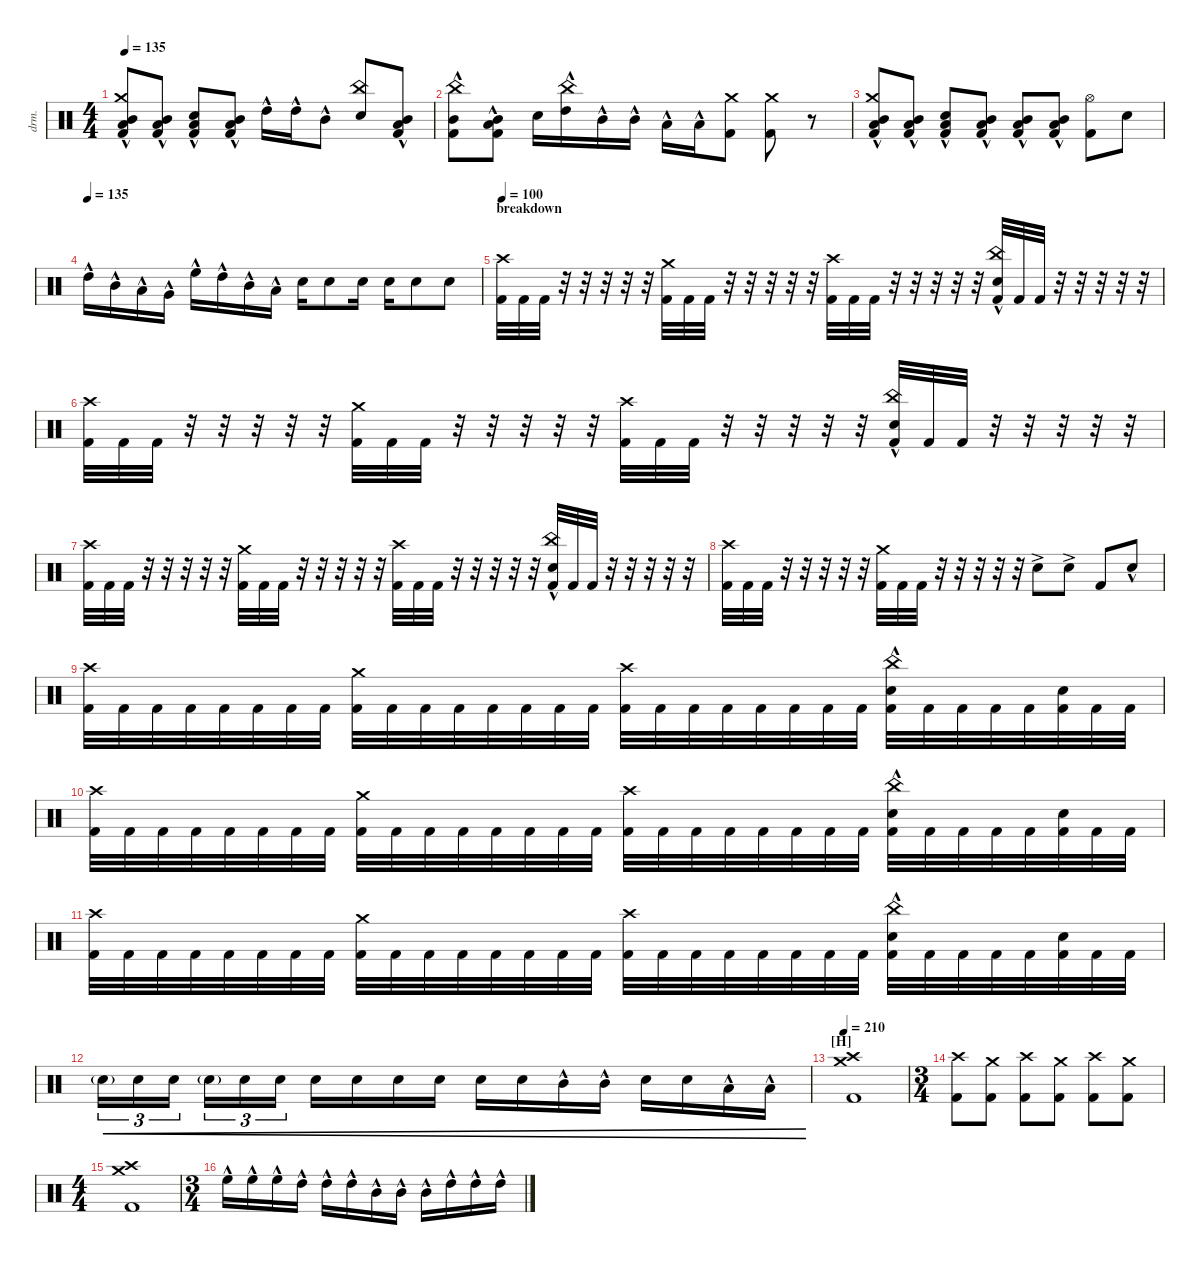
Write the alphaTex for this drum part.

\defaultSystemsLayout 4
\hideDynamics
\bracketExtendMode nobrackets
\otherSystemsTrackNameOrientation horizontal
\track ("Drumkit" "drm.") {instrument percussion}
\staff {score}
\articulation defaults
\ts (4 4)
\tempo 135
\clef neutral
\ks c
("Crash medium (hit)" "Kick (hit) 2" "Low Tom (hit)"{hac} "Mid Tom (hit)"{hac}).8{dy mf beam Up} ("Kick (hit) 2" "Low Tom (hit)"{hac} "Mid Tom (hit)"{hac}).8{beam Up} ("Kick (hit) 2" "Low Tom (hit)"{hac} "Snare (hit) 2").8{beam Up} ("Kick (hit) 2" "Low Tom (hit)"{hac} "Mid Tom (hit)"{hac}).8{beam Up} "High Tom (hit)"{hac}.16{beam Down} "High Tom (hit)"{hac}.16{beam Down} "Mid Tom (hit)"{hac}.8{beam Down} ("Snare (hit) 2" "China (hit)").8{beam Up} ("Kick (hit) 2" "Low Tom (hit)"{hac} "Mid Tom (hit)"{hac}).8{beam Up} |
("Kick (hit) 2" "Mid Tom (hit)"{hac} "China (hit)").8{beam Down} ("Kick (hit) 2" "Low Tom (hit)"{hac} "Mid Tom (hit)"{hac}).8{beam Down} "Snare (hit) 2".16{beam Down} ("High Tom (hit)"{hac} "China (hit)").16{beam Down} "Mid Tom (hit)"{hac}.16{beam Down} "Mid Tom (hit)"{hac}.16{beam Down} "Low Tom (hit)"{hac}.16{beam Down} "Low Tom (hit)"{hac}.16{beam Down} ("Kick (hit) 2" "Crash medium (hit)").8{beam Down} ("Kick (hit) 2" "Crash medium (hit)").8{beam Down} r.8{beam Down} |
("Crash medium (hit)" "Kick (hit) 2" "Low Tom (hit)"{hac} "Mid Tom (hit)"{hac}).8{beam Up} ("Kick (hit) 2" "Low Tom (hit)"{hac} "Mid Tom (hit)"{hac}).8{beam Up} ("Kick (hit) 2" "Low Tom (hit)"{hac} "Snare (hit) 2").8{beam Up} ("Kick (hit) 2" "Low Tom (hit)"{hac} "Mid Tom (hit)"{hac}).8{beam Up} ("Kick (hit) 2" "Low Tom (hit)"{hac} "Mid Tom (hit)"{hac}).8{beam Up} ("Kick (hit) 2" "Low Tom (hit)"{hac} "Mid Tom (hit)"{hac}).8{beam Up} ("Kick (hit) 2" "Hi-Hat (open)").8{beam Down} "Snare (hit) 2".8{beam Down} |
\tempo (135)
"High Tom (hit)"{hac}.16{beam Down} "Mid Tom (hit)"{hac}.16{beam Down} "Low Tom (hit)"{hac}.16{beam Down} "Very Low Tom (hit)"{hac}.16{beam Down} "High Floor Tom (hit)"{hac}.16{beam Down} "High Tom (hit)"{hac}.16{beam Down} "Mid Tom (hit)"{hac}.16{beam Down} "Low Tom (hit)"{hac}.16{beam Down} "Snare (hit) 2".16{beam Down} "Snare (hit) 2".8{beam Down} "Snare (hit) 2".16{beam Down} "Snare (hit) 2".16{beam Down} "Snare (hit) 2".8{beam Down} "Snare (hit) 2".8{beam Down} |
\section ("" "breakdown")
\tempo 100
("Kick (hit) 2" "Crash high (hit)").32{beam Down} "Kick (hit) 2".32{beam Down} "Kick (hit) 2".32{beam Down} r.32{beam Down} r.32{beam Down} r.32{beam Down} r.32{beam Down} r.32{beam Down} ("Kick (hit) 2" "Crash medium (hit)").32{beam Down} "Kick (hit) 2".32{beam Down} "Kick (hit) 2".32{beam Down} r.32{beam Down} r.32{beam Down} r.32{beam Down} r.32{beam Down} r.32{beam Down} ("Kick (hit) 2" "Crash high (hit)").32{beam Down} "Kick (hit) 2".32{beam Down} "Kick (hit) 2".32{beam Down} r.32{beam Down} r.32{beam Down} r.32{beam Down} r.32{beam Down} r.32{beam Down} ("Snare (hit) 2"{hac} "China (hit)" "Kick (hit) 2").32{beam Up} "Kick (hit) 2".32{beam Up} "Kick (hit) 2".32{beam Up} r.32{beam Up} r.32{beam Up} r.32{beam Up} r.32{beam Up} r.32{beam Up} |
("Kick (hit) 2" "Crash high (hit)").32{beam Down} "Kick (hit) 2".32{beam Down} "Kick (hit) 2".32{beam Down} r.32{beam Down} r.32{beam Down} r.32{beam Down} r.32{beam Down} r.32{beam Down} ("Kick (hit) 2" "Crash medium (hit)").32{beam Down} "Kick (hit) 2".32{beam Down} "Kick (hit) 2".32{beam Down} r.32{beam Down} r.32{beam Down} r.32{beam Down} r.32{beam Down} r.32{beam Down} ("Kick (hit) 2" "Crash high (hit)").32{beam Down} "Kick (hit) 2".32{beam Down} "Kick (hit) 2".32{beam Down} r.32{beam Down} r.32{beam Down} r.32{beam Down} r.32{beam Down} r.32{beam Down} ("Snare (hit) 2"{hac} "China (hit)" "Kick (hit) 2").32{beam Up} "Kick (hit) 2".32{beam Up} "Kick (hit) 2".32{beam Up} r.32{beam Up} r.32{beam Up} r.32{beam Up} r.32{beam Up} r.32{beam Up} |
("Kick (hit) 2" "Crash high (hit)").32{beam Down} "Kick (hit) 2".32{beam Down} "Kick (hit) 2".32{beam Down} r.32{beam Down} r.32{beam Down} r.32{beam Down} r.32{beam Down} r.32{beam Down} ("Kick (hit) 2" "Crash medium (hit)").32{beam Down} "Kick (hit) 2".32{beam Down} "Kick (hit) 2".32{beam Down} r.32{beam Down} r.32{beam Down} r.32{beam Down} r.32{beam Down} r.32{beam Down} ("Kick (hit) 2" "Crash high (hit)").32{beam Down} "Kick (hit) 2".32{beam Down} "Kick (hit) 2".32{beam Down} r.32{beam Down} r.32{beam Down} r.32{beam Down} r.32{beam Down} r.32{beam Down} ("Snare (hit) 2"{hac} "China (hit)" "Kick (hit) 2").32{beam Up} "Kick (hit) 2".32{beam Up} "Kick (hit) 2".32{beam Up} r.32{beam Up} r.32{beam Up} r.32{beam Up} r.32{beam Up} r.32{beam Up} |
("Kick (hit) 2" "Crash high (hit)").32{beam Down} "Kick (hit) 2".32{beam Down} "Kick (hit) 2".32{beam Down} r.32{beam Down} r.32{beam Down} r.32{beam Down} r.32{beam Down} r.32{beam Down} ("Kick (hit) 2" "Crash medium (hit)").32{beam Down} "Kick (hit) 2".32{beam Down} "Kick (hit) 2".32{beam Down} r.32{beam Down} r.32{beam Down} r.32{beam Down} r.32{beam Down} r.32{beam Down} "Snare (hit) 2"{ac}.8{beam Down} "Snare (hit) 2"{ac}.8{beam Down} "Kick (hit) 2".8{beam Up} "Snare (hit) 2"{hac}.8{beam Up} |
("Kick (hit) 2" "Crash high (hit)").32{beam Down} "Kick (hit) 2".32{beam Down} "Kick (hit) 2".32{beam Down} "Kick (hit) 2".32{beam Down} "Kick (hit) 2".32{beam Down} "Kick (hit) 2".32{beam Down} "Kick (hit) 2".32{beam Down} "Kick (hit) 2".32{beam Down} ("Kick (hit) 2" "Crash medium (hit)").32{beam Down} "Kick (hit) 2".32{beam Down} "Kick (hit) 2".32{beam Down} "Kick (hit) 2".32{beam Down} "Kick (hit) 2".32{beam Down} "Kick (hit) 2".32{beam Down} "Kick (hit) 2".32{beam Down} "Kick (hit) 2".32{beam Down} ("Kick (hit) 2" "Crash high (hit)").32{beam Down} "Kick (hit) 2".32{beam Down} "Kick (hit) 2".32{beam Down} "Kick (hit) 2".32{beam Down} "Kick (hit) 2".32{beam Down} "Kick (hit) 2".32{beam Down} "Kick (hit) 2".32{beam Down} "Kick (hit) 2".32{beam Down} ("Kick (hit) 2" "Snare (hit) 2"{hac} "China (hit)").32{beam Down} "Kick (hit) 2".32{beam Down} "Kick (hit) 2".32{beam Down} "Kick (hit) 2".32{beam Down} "Kick (hit) 2".32{beam Down} ("Snare (hit) 2" "Kick (hit) 2").32{beam Down} "Kick (hit) 2".32{beam Down} "Kick (hit) 2".32{beam Down} |
("Kick (hit) 2" "Crash high (hit)").32{beam Down} "Kick (hit) 2".32{beam Down} "Kick (hit) 2".32{beam Down} "Kick (hit) 2".32{beam Down} "Kick (hit) 2".32{beam Down} "Kick (hit) 2".32{beam Down} "Kick (hit) 2".32{beam Down} "Kick (hit) 2".32{beam Down} ("Kick (hit) 2" "Crash medium (hit)").32{beam Down} "Kick (hit) 2".32{beam Down} "Kick (hit) 2".32{beam Down} "Kick (hit) 2".32{beam Down} "Kick (hit) 2".32{beam Down} "Kick (hit) 2".32{beam Down} "Kick (hit) 2".32{beam Down} "Kick (hit) 2".32{beam Down} ("Kick (hit) 2" "Crash high (hit)").32{beam Down} "Kick (hit) 2".32{beam Down} "Kick (hit) 2".32{beam Down} "Kick (hit) 2".32{beam Down} "Kick (hit) 2".32{beam Down} "Kick (hit) 2".32{beam Down} "Kick (hit) 2".32{beam Down} "Kick (hit) 2".32{beam Down} ("Kick (hit) 2" "Snare (hit) 2"{hac} "China (hit)").32{beam Down} "Kick (hit) 2".32{beam Down} "Kick (hit) 2".32{beam Down} "Kick (hit) 2".32{beam Down} "Kick (hit) 2".32{beam Down} ("Snare (hit) 2" "Kick (hit) 2").32{beam Down} "Kick (hit) 2".32{beam Down} "Kick (hit) 2".32{beam Down} |
("Kick (hit) 2" "Crash high (hit)").32{beam Down} "Kick (hit) 2".32{beam Down} "Kick (hit) 2".32{beam Down} "Kick (hit) 2".32{beam Down} "Kick (hit) 2".32{beam Down} "Kick (hit) 2".32{beam Down} "Kick (hit) 2".32{beam Down} "Kick (hit) 2".32{beam Down} ("Kick (hit) 2" "Crash medium (hit)").32{beam Down} "Kick (hit) 2".32{beam Down} "Kick (hit) 2".32{beam Down} "Kick (hit) 2".32{beam Down} "Kick (hit) 2".32{beam Down} "Kick (hit) 2".32{beam Down} "Kick (hit) 2".32{beam Down} "Kick (hit) 2".32{beam Down} ("Kick (hit) 2" "Crash high (hit)").32{beam Down} "Kick (hit) 2".32{beam Down} "Kick (hit) 2".32{beam Down} "Kick (hit) 2".32{beam Down} "Kick (hit) 2".32{beam Down} "Kick (hit) 2".32{beam Down} "Kick (hit) 2".32{beam Down} "Kick (hit) 2".32{beam Down} ("Kick (hit) 2" "Snare (hit) 2"{hac} "China (hit)").32{beam Down} "Kick (hit) 2".32{beam Down} "Kick (hit) 2".32{beam Down} "Kick (hit) 2".32{beam Down} "Kick (hit) 2".32{beam Down} ("Snare (hit) 2" "Kick (hit) 2").32{beam Down} "Kick (hit) 2".32{beam Down} "Kick (hit) 2".32{beam Down} |
"Snare (hit) 2"{g}.16{tu (3 2) cre beam Down} "Snare (hit) 2".16{tu (3 2) cre beam Down} "Snare (hit) 2".16{tu (3 2) cre beam Down} "Snare (hit) 2"{g}.16{tu (3 2) cre beam Down} "Snare (hit) 2".16{tu (3 2) cre beam Down} "Snare (hit) 2".16{tu (3 2) cre beam Down} "Snare (hit) 2".16{cre beam Down} "Snare (hit) 2".16{cre beam Down} "Snare (hit) 2".16{cre beam Down} "Snare (hit) 2".16{cre beam Down} "Snare (hit) 2".16{cre beam Down} "Snare (hit) 2".16{cre beam Down} "Mid Tom (hit)"{hac}.16{cre beam Down} "Mid Tom (hit)"{hac}.16{cre beam Down} "Snare (hit) 2".16{cre beam Down} "Snare (hit) 2".16{cre beam Down} "Low Tom (hit)"{hac}.16{cre beam Down} "Low Tom (hit)"{hac}.16{cre beam Down} |
\section ("H" "")
\tempo 210
("Kick (hit) 2" "Crash medium (hit)" "Crash high (hit)").1{beam Down} |
\ts (3 4)
\beaming (8 2 2 2)
("Kick (hit) 2" "Crash high (hit)").8{beam Down} ("Kick (hit) 2" "Crash medium (hit)").8{beam Down} ("Kick (hit) 2" "Crash high (hit)").8{beam Down} ("Kick (hit) 2" "Crash medium (hit)").8{beam Down} ("Kick (hit) 2" "Crash high (hit)").8{beam Down} ("Kick (hit) 2" "Crash medium (hit)").8{beam Down} |
\ts (4 4)
\beaming (8 2 2 2 2)
("Kick (hit) 2" "Crash high (hit)" "Crash medium (hit)").1{beam Down} |
\ts (3 4)
\beaming (8 2 2 2)
"High Floor Tom (hit)"{hac}.16{beam Down} "High Floor Tom (hit)"{hac}.16{beam Down} "High Floor Tom (hit)"{hac}.16{beam Down} "High Tom (hit)"{hac}.16{beam Down} "High Tom (hit)"{hac}.16{beam Down} "High Tom (hit)"{hac}.16{beam Down} "Mid Tom (hit)"{hac}.16{beam Down} "Mid Tom (hit)"{hac}.16{beam Down} "Mid Tom (hit)"{hac}.16{beam Down} "High Tom (hit)"{hac}.16{beam Down} "High Tom (hit)"{hac}.16{beam Down} "High Tom (hit)"{hac}.16{beam Down}
